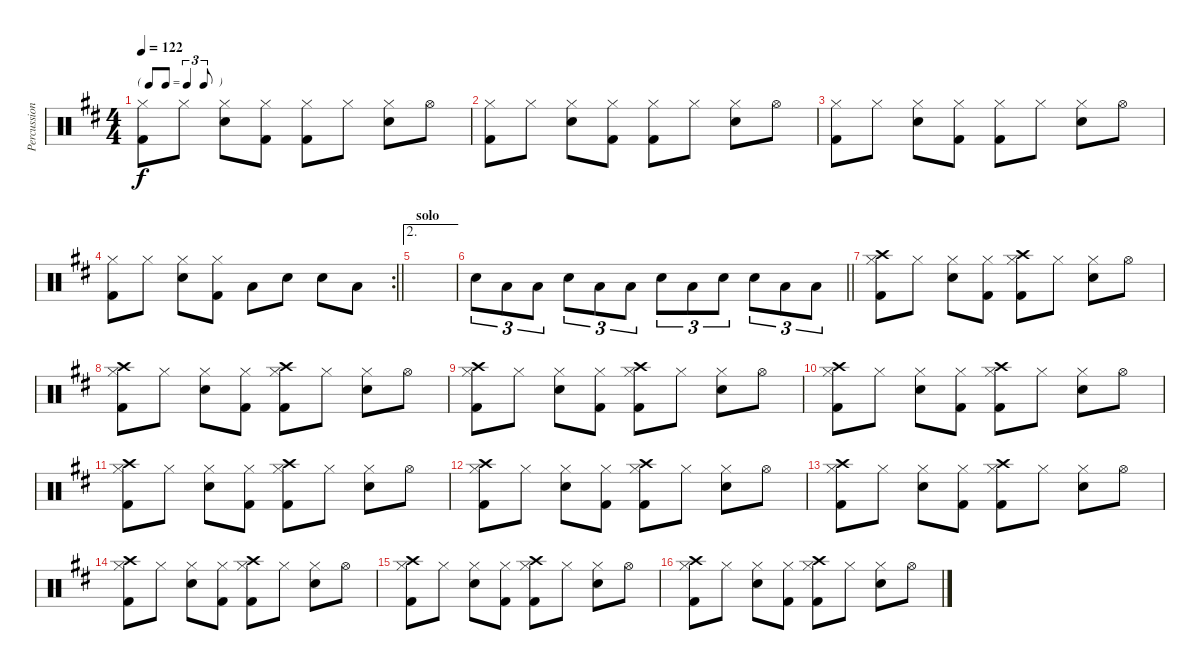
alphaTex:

\track ("Percussioni" "Percussion") {instrument percussion}
\staff {score}
\articulation defaults
\ts (4 4)
\tf triplet8th
\tempo 122
\clef neutral
\ks d
("Hi-Hat (closed)" "Kick (hit) 2").8{dy f} "Hi-Hat (closed)".8 ("Hi-Hat (closed)" "Electric Snare (hit)").8 ("Hi-Hat (closed)" "Kick (hit) 2").8 ("Hi-Hat (closed)" "Kick (hit) 2").8 "Hi-Hat (closed)".8 ("Hi-Hat (closed)" "Electric Snare (hit)").8 "Hi-Hat (open)".8 |
("Hi-Hat (closed)" "Kick (hit) 2").8 "Hi-Hat (closed)".8 ("Hi-Hat (closed)" "Electric Snare (hit)").8 ("Hi-Hat (closed)" "Kick (hit) 2").8 ("Hi-Hat (closed)" "Kick (hit) 2").8 "Hi-Hat (closed)".8 ("Hi-Hat (closed)" "Electric Snare (hit)").8 "Hi-Hat (open)".8 |
("Hi-Hat (closed)" "Kick (hit) 2").8 "Hi-Hat (closed)".8 ("Hi-Hat (closed)" "Electric Snare (hit)").8 ("Hi-Hat (closed)" "Kick (hit) 2").8 ("Hi-Hat (closed)" "Kick (hit) 2").8 "Hi-Hat (closed)".8 ("Hi-Hat (closed)" "Electric Snare (hit)").8 "Hi-Hat (open)".8 |
\rc 2
\barLineRight lightlight
("Hi-Hat (closed)" "Kick (hit) 2").8 "Hi-Hat (closed)".8 ("Hi-Hat (closed)" "Electric Snare (hit)").8 ("Hi-Hat (closed)" "Kick (hit) 2").8 "Low Tom (hit)".8 "Electric Snare (hit)".8 "Electric Snare (hit)".8 "Low Tom (hit)".8 |
\ae 2
\section ("" "solo")
|
\barLineRight lightlight "Electric Snare (hit)".8{tu (3 2)} "Low Tom (hit)".8{tu (3 2)} "Low Tom (hit)".8{tu (3 2)} "Electric Snare (hit)".8{tu (3 2)} "Low Tom (hit)".8{tu (3 2)} "Low Tom (hit)".8{tu (3 2)} "Electric Snare (hit)".8{tu (3 2)} "Low Tom (hit)".8{tu (3 2)} "Electric Snare (hit)".8{tu (3 2)} "Electric Snare (hit)".8{tu (3 2)} "Low Tom (hit)".8{tu (3 2)} "Low Tom (hit)".8{tu (3 2)}
|
("Hi-Hat (closed)" "Kick (hit) 2" "Crash high (hit)").8 "Hi-Hat (closed)".8 ("Hi-Hat (closed)" "Electric Snare (hit)").8 ("Hi-Hat (closed)" "Kick (hit) 2").8 ("Hi-Hat (closed)" "Kick (hit) 2" "Crash high (hit)").8 "Hi-Hat (closed)".8 ("Hi-Hat (closed)" "Electric Snare (hit)").8 "Hi-Hat (open)".8 |
("Hi-Hat (closed)" "Kick (hit) 2" "Crash high (hit)").8 "Hi-Hat (closed)".8 ("Hi-Hat (closed)" "Electric Snare (hit)").8 ("Hi-Hat (closed)" "Kick (hit) 2").8 ("Hi-Hat (closed)" "Kick (hit) 2" "Crash high (hit)").8 "Hi-Hat (closed)".8 ("Hi-Hat (closed)" "Electric Snare (hit)").8 "Hi-Hat (open)".8 |
("Hi-Hat (closed)" "Kick (hit) 2" "Crash high (hit)").8 "Hi-Hat (closed)".8 ("Hi-Hat (closed)" "Electric Snare (hit)").8 ("Hi-Hat (closed)" "Kick (hit) 2").8 ("Hi-Hat (closed)" "Kick (hit) 2" "Crash high (hit)").8 "Hi-Hat (closed)".8 ("Hi-Hat (closed)" "Electric Snare (hit)").8 "Hi-Hat (open)".8 |
("Hi-Hat (closed)" "Kick (hit) 2" "Crash high (hit)").8 "Hi-Hat (closed)".8 ("Hi-Hat (closed)" "Electric Snare (hit)").8 ("Hi-Hat (closed)" "Kick (hit) 2").8 ("Hi-Hat (closed)" "Kick (hit) 2" "Crash high (hit)").8 "Hi-Hat (closed)".8 ("Hi-Hat (closed)" "Electric Snare (hit)").8 "Hi-Hat (open)".8 |
("Hi-Hat (closed)" "Kick (hit) 2" "Crash high (hit)").8 "Hi-Hat (closed)".8 ("Hi-Hat (closed)" "Electric Snare (hit)").8 ("Hi-Hat (closed)" "Kick (hit) 2").8 ("Hi-Hat (closed)" "Kick (hit) 2" "Crash high (hit)").8 "Hi-Hat (closed)".8 ("Hi-Hat (closed)" "Electric Snare (hit)").8 "Hi-Hat (open)".8 |
("Hi-Hat (closed)" "Kick (hit) 2" "Crash high (hit)").8 "Hi-Hat (closed)".8 ("Hi-Hat (closed)" "Electric Snare (hit)").8 ("Hi-Hat (closed)" "Kick (hit) 2").8 ("Hi-Hat (closed)" "Kick (hit) 2" "Crash high (hit)").8 "Hi-Hat (closed)".8 ("Hi-Hat (closed)" "Electric Snare (hit)").8 "Hi-Hat (open)".8 |
("Hi-Hat (closed)" "Kick (hit) 2" "Crash high (hit)").8 "Hi-Hat (closed)".8 ("Hi-Hat (closed)" "Electric Snare (hit)").8 ("Hi-Hat (closed)" "Kick (hit) 2").8 ("Hi-Hat (closed)" "Kick (hit) 2" "Crash high (hit)").8 "Hi-Hat (closed)".8 ("Hi-Hat (closed)" "Electric Snare (hit)").8 "Hi-Hat (open)".8 |
("Hi-Hat (closed)" "Kick (hit) 2" "Crash high (hit)").8 "Hi-Hat (closed)".8 ("Hi-Hat (closed)" "Electric Snare (hit)").8 ("Hi-Hat (closed)" "Kick (hit) 2").8 ("Hi-Hat (closed)" "Kick (hit) 2" "Crash high (hit)").8 "Hi-Hat (closed)".8 ("Hi-Hat (closed)" "Electric Snare (hit)").8 "Hi-Hat (open)".8 |
("Hi-Hat (closed)" "Kick (hit) 2" "Crash high (hit)").8 "Hi-Hat (closed)".8 ("Hi-Hat (closed)" "Electric Snare (hit)").8 ("Hi-Hat (closed)" "Kick (hit) 2").8 ("Hi-Hat (closed)" "Kick (hit) 2" "Crash high (hit)").8 "Hi-Hat (closed)".8 ("Hi-Hat (closed)" "Electric Snare (hit)").8 "Hi-Hat (open)".8 |
("Hi-Hat (closed)" "Kick (hit) 2" "Crash high (hit)").8 "Hi-Hat (closed)".8 ("Hi-Hat (closed)" "Electric Snare (hit)").8 ("Hi-Hat (closed)" "Kick (hit) 2").8 ("Hi-Hat (closed)" "Kick (hit) 2" "Crash high (hit)").8 "Hi-Hat (closed)".8 ("Hi-Hat (closed)" "Electric Snare (hit)").8 "Hi-Hat (open)".8
